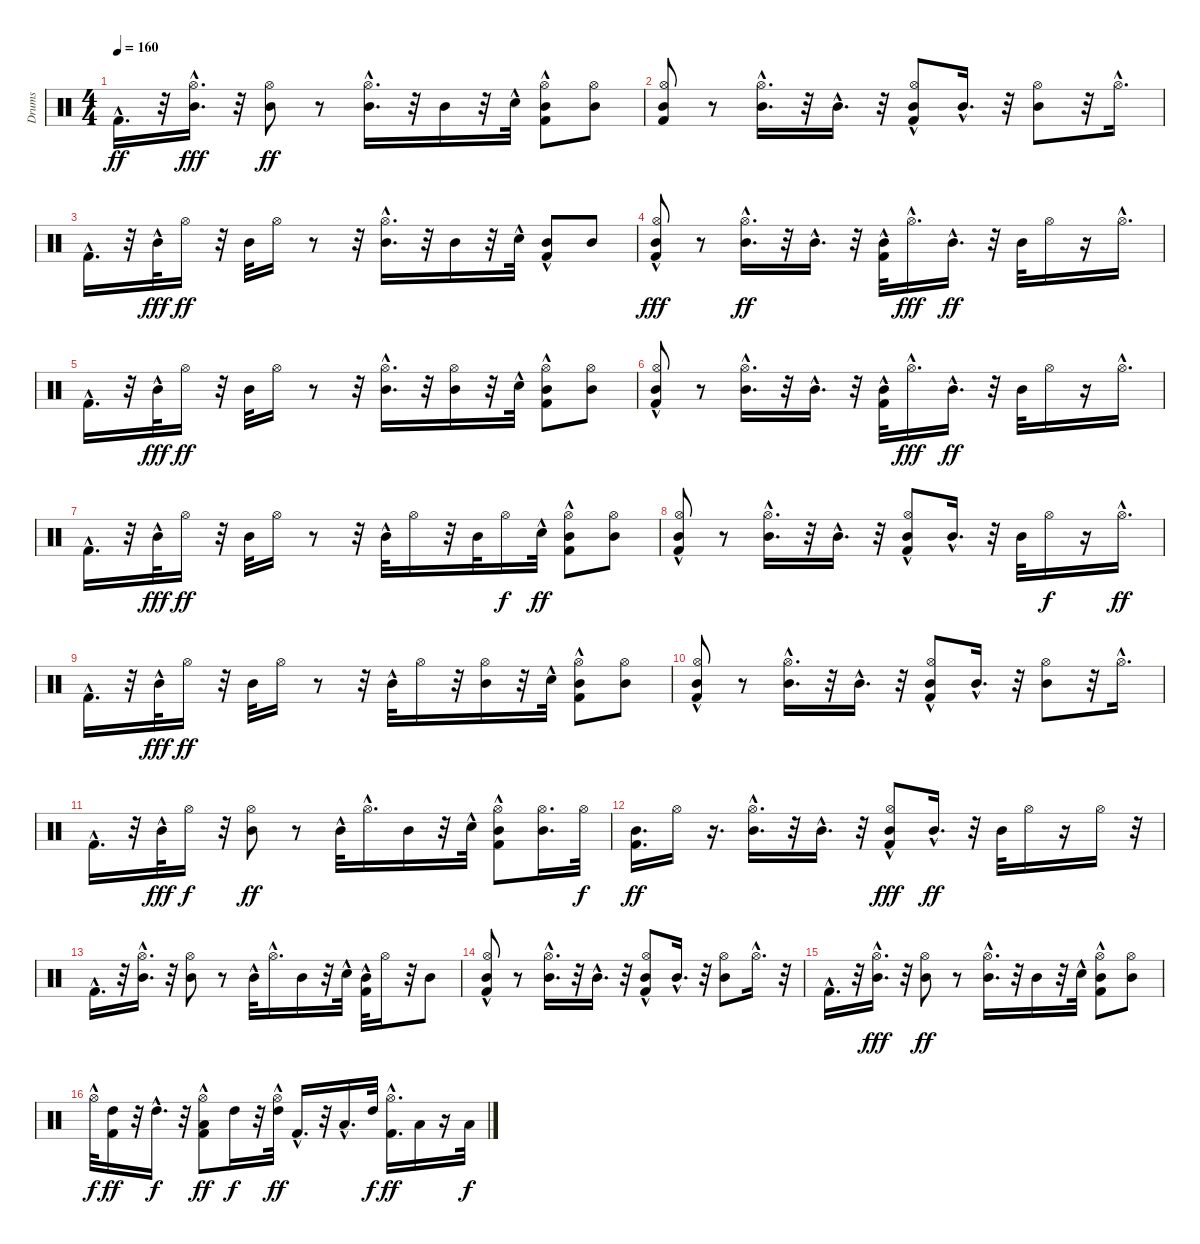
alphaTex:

\track ("Drums" "Drums") {instrument percussion}
\staff {score}
\articulation defaults
\ts (4 4)
\tempo 160
\clef neutral
\ks c "Kick (hit) 2"{hac}.16{d dy ff}
r.32 ("Hi-Hat (open)" "Mid Tom (hit)"{hac}).16{d dy fff} r.32 ("Hi-Hat (open)" "Mid Tom (hit)").8{dy ff} r.8 ("Mid Tom (hit)"{hac} "Hi-Hat (open)"{hac}).16{d} r.32 "Mid Tom (hit)".16 r.32 "Snare (hit) 2"{hac}.32 ("Kick (hit) 2"{hac} "Mid Tom (hit)" "Hi-Hat (open)").8 ("Mid Tom (hit)" "Hi-Hat (open)").8 |
("Mid Tom (hit)" "Kick (hit) 2" "Hi-Hat (open)").8 r.8 ("Hi-Hat (open)"{hac} "Mid Tom (hit)"{hac}).16{d} r.32 "Mid Tom (hit)"{hac}.16{d} r.32 ("Hi-Hat (open)" "Mid Tom (hit)"{hac} "Kick (hit) 2").8 "Mid Tom (hit)"{hac}.16{d} r.32 ("Mid Tom (hit)" "Hi-Hat (open)").8 r.32 "Hi-Hat (open)"{hac}.16{d} |
"Kick (hit) 2"{hac}.16{d} r.32 "Mid Tom (hit)"{hac}.32{dy fff} "Hi-Hat (open)".16{dy ff} r.32 "Mid Tom (hit)".32 "Hi-Hat (open)".16 r.8 r.32 ("Mid Tom (hit)"{hac} "Hi-Hat (open)").16{d} r.32 "Mid Tom (hit)".16 r.32 "Snare (hit) 2"{hac}.32 ("Kick (hit) 2"{hac} "Mid Tom (hit)").8 "Mid Tom (hit)".8 |
("Mid Tom (hit)" "Kick (hit) 2" "Hi-Hat (open)"{hac}).8{dy fff} r.8 ("Mid Tom (hit)"{hac} "Hi-Hat (open)").16{d dy ff} r.32 "Mid Tom (hit)"{hac}.16{d} r.32 ("Mid Tom (hit)"{hac} "Kick (hit) 2").32 "Hi-Hat (open)"{hac}.16{d dy fff} "Mid Tom (hit)"{hac}.16{d dy ff} r.32 "Mid Tom (hit)".32 "Hi-Hat (open)".16 r.16 "Hi-Hat (open)"{hac}.16{d} |
"Kick (hit) 2"{hac}.16{d} r.32 "Mid Tom (hit)"{hac}.32{dy fff} "Hi-Hat (open)".16{dy ff} r.32 "Mid Tom (hit)".32 "Hi-Hat (open)".16 r.8 r.32 ("Mid Tom (hit)"{hac} "Hi-Hat (open)").16{d} r.32 ("Mid Tom (hit)" "Hi-Hat (open)").16 r.32 "Snare (hit) 2"{hac}.32 ("Hi-Hat (open)" "Kick (hit) 2"{hac} "Mid Tom (hit)").8 ("Hi-Hat (open)" "Mid Tom (hit)").8 |
("Hi-Hat (open)"{hac} "Mid Tom (hit)" "Kick (hit) 2").8 r.8 ("Hi-Hat (open)"{hac} "Mid Tom (hit)"{hac}).16{d} r.32 "Mid Tom (hit)"{hac}.16{d} r.32 ("Mid Tom (hit)"{hac} "Kick (hit) 2").32 "Hi-Hat (open)"{hac}.16{d dy fff} "Mid Tom (hit)"{hac}.16{d dy ff} r.32 "Mid Tom (hit)".32 "Hi-Hat (open)".16 r.16 "Hi-Hat (open)"{hac}.16{d} |
"Kick (hit) 2"{hac}.16{d} r.32 "Mid Tom (hit)"{hac}.32{dy fff} "Hi-Hat (open)".16{dy ff} r.32 "Mid Tom (hit)".32 "Hi-Hat (open)".16 r.8 r.32 "Mid Tom (hit)"{hac}.32 "Hi-Hat (open)".16 r.32 "Mid Tom (hit)".32 "Hi-Hat (open)".16{dy f} "Snare (hit) 2"{hac}.32{dy ff} ("Kick (hit) 2"{hac} "Mid Tom (hit)" "Hi-Hat (open)").8 ("Hi-Hat (open)" "Mid Tom (hit)").8 |
("Hi-Hat (open)"{hac} "Mid Tom (hit)" "Kick (hit) 2").8 r.8 ("Hi-Hat (open)" "Mid Tom (hit)"{hac}).16{d} r.32 "Mid Tom (hit)"{hac}.16{d} r.32 ("Mid Tom (hit)"{hac} "Kick (hit) 2" "Hi-Hat (open)").8 "Mid Tom (hit)"{hac}.16{d} r.32 "Mid Tom (hit)".32 "Hi-Hat (open)".16{dy f} r.16 "Hi-Hat (open)"{hac}.16{d dy ff} |
"Kick (hit) 2"{hac}.16{d} r.32 "Mid Tom (hit)"{hac}.32{dy fff} "Hi-Hat (open)".16{dy ff} r.32 "Mid Tom (hit)".32 "Hi-Hat (open)".16 r.8 r.32 "Mid Tom (hit)"{hac}.32 "Hi-Hat (open)".16 r.32 ("Mid Tom (hit)" "Hi-Hat (open)").16 r.32 "Snare (hit) 2"{hac}.32 ("Kick (hit) 2"{hac} "Mid Tom (hit)" "Hi-Hat (open)").8 ("Mid Tom (hit)" "Hi-Hat (open)").8 |
("Mid Tom (hit)" "Kick (hit) 2" "Hi-Hat (open)"{hac}).8 r.8 ("Hi-Hat (open)"{hac} "Mid Tom (hit)"{hac}).16{d} r.32 "Mid Tom (hit)"{hac}.16{d} r.32 ("Mid Tom (hit)"{hac} "Kick (hit) 2" "Hi-Hat (open)"{hac}).8 "Mid Tom (hit)"{hac}.16{d} r.32 ("Mid Tom (hit)" "Hi-Hat (open)").8 r.32 "Hi-Hat (open)"{hac}.16{d} |
"Kick (hit) 2"{hac}.16{d} r.32 "Mid Tom (hit)"{hac}.32{dy fff} "Hi-Hat (open)".16{dy f} r.32 ("Mid Tom (hit)" "Hi-Hat (open)").8{dy ff} r.8 "Mid Tom (hit)"{hac}.32 "Hi-Hat (open)"{hac}.16{d} "Mid Tom (hit)".16 r.32 "Snare (hit) 2"{hac}.32 ("Kick (hit) 2"{hac} "Mid Tom (hit)" "Hi-Hat (open)").8 ("Mid Tom (hit)" "Hi-Hat (open)").16{d} "Hi-Hat (open)".32{dy f} |
("Mid Tom (hit)" "Kick (hit) 2").16{d dy ff} "Hi-Hat (open)".16 r.16{d} ("Hi-Hat (open)" "Mid Tom (hit)"{hac}).16{d} r.32 "Mid Tom (hit)"{hac}.16{d} r.32 ("Mid Tom (hit)"{hac} "Kick (hit) 2" "Hi-Hat (open)"{hac}).8{dy fff} "Mid Tom (hit)"{hac}.16{d dy ff} r.32 "Mid Tom (hit)".32 "Hi-Hat (open)".16 r.16 "Hi-Hat (open)".16 r.32 |
"Kick (hit) 2"{hac}.16{d} r.32 ("Mid Tom (hit)"{hac} "Hi-Hat (open)").16{d} r.32 ("Mid Tom (hit)" "Hi-Hat (open)").8 r.8 "Mid Tom (hit)"{hac}.32 "Hi-Hat (open)"{hac}.16{d} "Mid Tom (hit)".16 r.32 "Snare (hit) 2"{hac}.32 ("Kick (hit) 2"{hac} "Mid Tom (hit)").32 "Hi-Hat (open)".16 r.32 "Mid Tom (hit)".8 |
("Mid Tom (hit)" "Kick (hit) 2" "Hi-Hat (open)"{hac}).8 r.8 ("Mid Tom (hit)"{hac} "Hi-Hat (open)"{hac}).16{d} r.32 "Mid Tom (hit)"{hac}.16{d} r.32 ("Mid Tom (hit)"{hac} "Kick (hit) 2" "Hi-Hat (open)"{hac}).8 "Mid Tom (hit)"{hac}.16{d} r.32 ("Hi-Hat (open)" "Mid Tom (hit)").8 "Hi-Hat (open)"{hac}.16{d} r.32 |
"Kick (hit) 2"{hac}.16{d} r.32 ("Hi-Hat (open)" "Mid Tom (hit)"{hac}).16{d dy fff} r.32 ("Mid Tom (hit)" "Hi-Hat (open)").8{dy ff} r.8 ("Mid Tom (hit)"{hac} "Hi-Hat (open)"{hac}).16{d} r.32 "Mid Tom (hit)".16 r.32 "Snare (hit) 2"{hac}.32 ("Kick (hit) 2"{hac} "Mid Tom (hit)" "Hi-Hat (open)").8 ("Mid Tom (hit)" "Hi-Hat (open)").8 |
"Hi-Hat (open)"{hac}.32{dy f} ("Kick (hit) 2" "High Tom (hit)").16{dy ff} r.32 "High Tom (hit)"{hac}.16{d dy f} r.32 ("Kick (hit) 2"{hac} "Low Tom (hit)" "Hi-Hat (open)").8{dy ff} "High Tom (hit)".16{dy f} r.32 ("Hi-Hat (open)"{hac} "High Tom (hit)").32{dy ff} "Kick (hit) 2"{hac}.16{d} r.32 "Low Tom (hit)"{hac}.16{d} "High Tom (hit)".32{dy f} ("Kick (hit) 2"{hac} "Hi-Hat (open)"{hac}).16{d dy ff} "Low Tom (hit)".16 r.16 "Low Tom (hit)".32{dy f}
